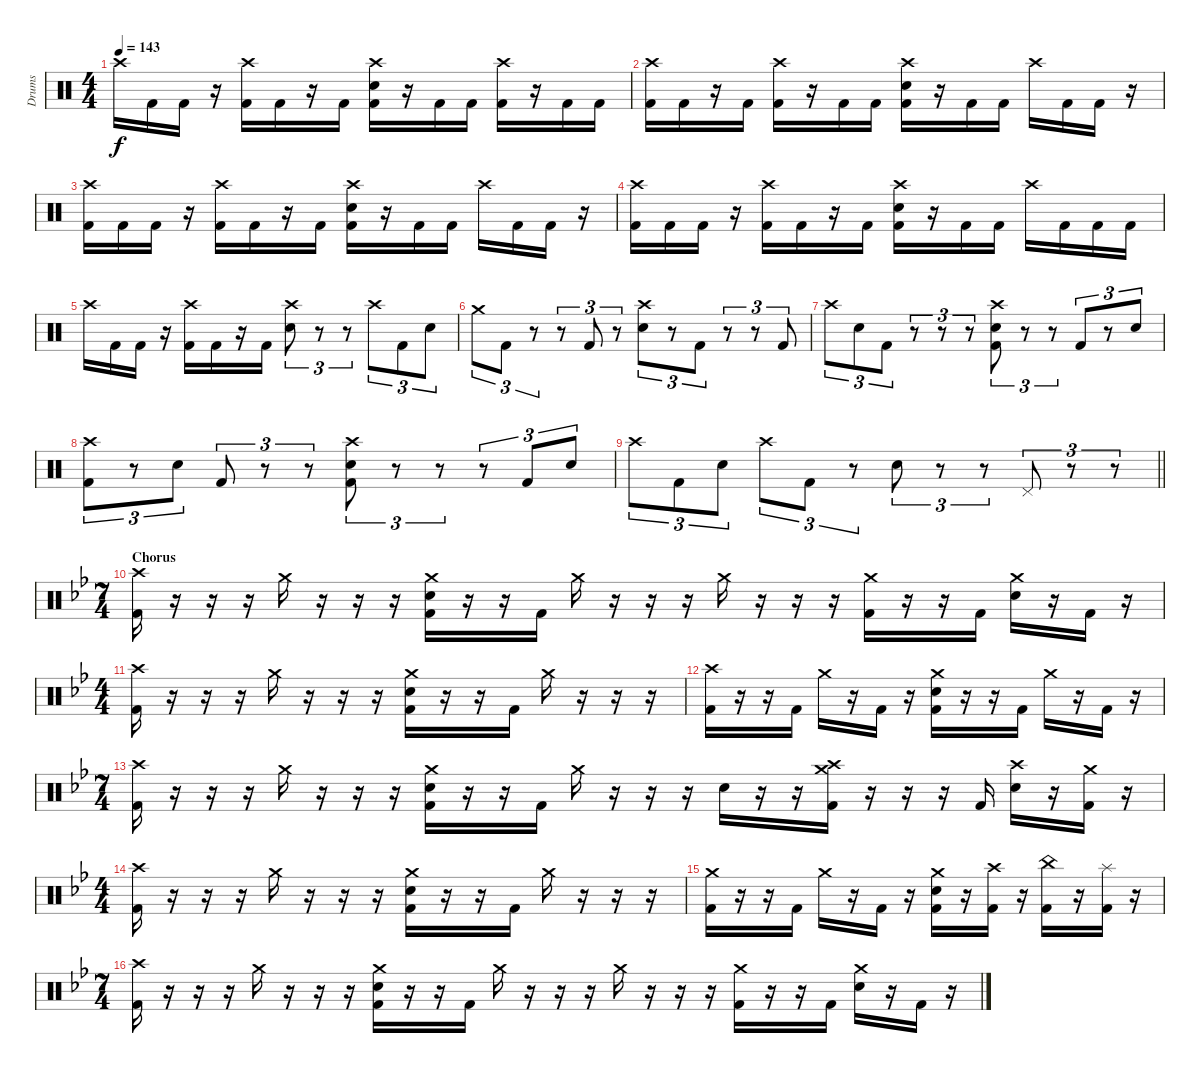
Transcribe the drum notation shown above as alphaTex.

\track ("Drums" "Drums") {instrument percussion}
\staff {score}
\articulation defaults
\ts (4 4)
\tempo 143
\clef neutral
\ks c "Crash high (hit)".16{dy f} "Kick (hit) 2".16 "Kick (hit) 2".16
r.16 ("Crash high (hit)" "Kick (hit) 2").16 "Kick (hit) 2".16 r.16 "Kick (hit) 2".16 ("Crash high (hit)" "Electric Snare (hit)" "Kick (hit) 2").16 r.16 "Kick (hit) 2".16 "Kick (hit) 2".16 ("Crash high (hit)" "Kick (hit) 2").16 r.16 "Kick (hit) 2".16 "Kick (hit) 2".16 |
("Crash high (hit)" "Kick (hit) 2").16 "Kick (hit) 2".16 r.16 "Kick (hit) 2".16 ("Crash high (hit)" "Kick (hit) 2").16 r.16 "Kick (hit) 2".16 "Kick (hit) 2".16 ("Crash high (hit)" "Electric Snare (hit)" "Kick (hit) 2").16 r.16 "Kick (hit) 2".16 "Kick (hit) 2".16 "Crash high (hit)".16 "Kick (hit) 2".16 "Kick (hit) 2".16 r.16 |
("Crash high (hit)" "Kick (hit) 2").16 "Kick (hit) 2".16 "Kick (hit) 2".16 r.16 ("Crash high (hit)" "Kick (hit) 2").16 "Kick (hit) 2".16 r.16 "Kick (hit) 2".16 ("Crash high (hit)" "Electric Snare (hit)" "Kick (hit) 2").16 r.16 "Kick (hit) 2".16 "Kick (hit) 2".16 "Crash high (hit)".16 "Kick (hit) 2".16 "Kick (hit) 2".16 r.16 |
("Crash high (hit)" "Kick (hit) 2").16 "Kick (hit) 2".16 "Kick (hit) 2".16 r.16 ("Crash high (hit)" "Kick (hit) 2").16 "Kick (hit) 2".16 r.16 "Kick (hit) 2".16 ("Crash high (hit)" "Electric Snare (hit)" "Kick (hit) 2").16 r.16 "Kick (hit) 2".16 "Kick (hit) 2".16 "Crash high (hit)".16 "Kick (hit) 2".16 "Kick (hit) 2".16 "Kick (hit) 2".16 |
"Crash high (hit)".16 "Kick (hit) 2".16 "Kick (hit) 2".16 r.16 ("Crash high (hit)" "Kick (hit) 2").16 "Kick (hit) 2".16 r.16 "Kick (hit) 2".16 ("Crash high (hit)" "Electric Snare (hit)").8{tu (3 2)} r.8{tu (3 2)} r.8{tu (3 2)} "Crash high (hit)".8{tu (3 2)} "Kick (hit) 2".8{tu (3 2)} "Electric Snare (hit)".8{tu (3 2)} |
"Crash medium (hit)".8{tu (3 2)} "Kick (hit) 2".8{tu (3 2)} r.8{tu (3 2)} r.8{tu (3 2)} "Kick (hit) 2".8{tu (3 2)} r.8{tu (3 2)} ("Crash high (hit)" "Electric Snare (hit)").8{tu (3 2)} r.8{tu (3 2)} "Kick (hit) 2".8{tu (3 2)} r.8{tu (3 2)} r.8{tu (3 2)} "Kick (hit) 2".8{tu (3 2)} |
"Crash high (hit)".8{tu (3 2)} "Electric Snare (hit)".8{tu (3 2)} "Kick (hit) 2".8{tu (3 2)} r.8{tu (3 2)} r.8{tu (3 2)} r.8{tu (3 2)} ("Crash high (hit)" "Electric Snare (hit)" "Kick (hit) 2").8{tu (3 2)} r.8{tu (3 2)} r.8{tu (3 2)} "Kick (hit) 2".8{tu (3 2)} r.8{tu (3 2)} "Electric Snare (hit)".8{tu (3 2)} |
("Crash high (hit)" "Kick (hit) 2").8{tu (3 2)} r.8{tu (3 2)} "Electric Snare (hit)".8{tu (3 2)} "Kick (hit) 2".8{tu (3 2)} r.8{tu (3 2)} r.8{tu (3 2)} ("Crash high (hit)" "Electric Snare (hit)" "Kick (hit) 2").8{tu (3 2)} r.8{tu (3 2)} r.8{tu (3 2)} r.8{tu (3 2)} "Kick (hit) 2".8{tu (3 2)} "Electric Snare (hit)".8{tu (3 2)} |
\barLineRight lightlight "Crash high (hit)".8{tu (3 2)} "Kick (hit) 2".8{tu (3 2)} "Electric Snare (hit)".8{tu (3 2)} "Crash high (hit)".8{tu (3 2)} "Kick (hit) 2".8{tu (3 2)}
r.8{tu (3 2)} "Electric Snare (hit)".8{tu (3 2)} r.8{tu (3 2)} r.8{tu (3 2)} "Pedal Hi-Hat (hit)".8{tu (3 2)} r.8{tu (3 2)} r.8{tu (3 2)} |
\ts (7 4)
\section ("" "Chorus")
\ks bb
("Crash high (hit)" "Kick (hit) 2").16 r.16 r.16 r.16 "Crash medium (hit)".16 r.16 r.16 r.16 ("Crash medium (hit)" "Electric Snare (hit)" "Kick (hit) 2").16 r.16 r.16 "Kick (hit) 2".16 "Crash medium (hit)".16 r.16 r.16 r.16 "Crash medium (hit)".16 r.16 r.16 r.16 ("Crash medium (hit)" "Kick (hit) 2").16 r.16 r.16 "Kick (hit) 2".16 ("Crash medium (hit)" "Electric Snare (hit)").16 r.16 "Kick (hit) 2".16 r.16 |
\ts (4 4)
("Crash high (hit)" "Kick (hit) 2").16 r.16 r.16 r.16 "Crash medium (hit)".16 r.16 r.16 r.16 ("Crash medium (hit)" "Electric Snare (hit)" "Kick (hit) 2").16 r.16 r.16 "Kick (hit) 2".16 "Crash medium (hit)".16 r.16 r.16 r.16 |
("Crash high (hit)" "Kick (hit) 2").16 r.16 r.16 "Kick (hit) 2".16 "Crash medium (hit)".16 r.16 "Kick (hit) 2".16 r.16 ("Crash medium (hit)" "Electric Snare (hit)" "Kick (hit) 2").16 r.16 r.16 "Kick (hit) 2".16 "Crash medium (hit)".16 r.16 "Kick (hit) 2".16 r.16 |
\ts (7 4)
("Crash high (hit)" "Kick (hit) 2").16 r.16 r.16 r.16 "Crash medium (hit)".16 r.16 r.16 r.16 ("Crash medium (hit)" "Electric Snare (hit)" "Kick (hit) 2").16 r.16 r.16 "Kick (hit) 2".16 "Crash medium (hit)".16 r.16 r.16 r.16 "Electric Snare (hit)".16 r.16 r.16 ("Crash medium (hit)" "Crash high (hit)" "Kick (hit) 2").16 r.16 r.16 r.16 "Kick (hit) 2".16 ("Crash high (hit)" "Electric Snare (hit)").16 r.16 ("Crash medium (hit)" "Kick (hit) 2").16 r.16 |
\ts (4 4)
("Crash high (hit)" "Kick (hit) 2").16 r.16 r.16 r.16 "Crash medium (hit)".16 r.16 r.16 r.16 ("Crash medium (hit)" "Electric Snare (hit)" "Kick (hit) 2").16 r.16 r.16 "Kick (hit) 2".16 "Crash medium (hit)".16 r.16 r.16 r.16 |
("Crash medium (hit)" "Kick (hit) 2").16 r.16 r.16 "Kick (hit) 2".16 "Crash medium (hit)".16 r.16 "Kick (hit) 2".16 r.16 ("Crash medium (hit)" "Electric Snare (hit)" "Kick (hit) 2").16 r.16 ("Crash high (hit)" "Kick (hit) 2").16 r.16 ("China (hit)" "Kick (hit) 2").16 r.16 ("Splash (hit)" "Kick (hit) 2").16 r.16 |
\ts (7 4)
("Crash high (hit)" "Kick (hit) 2").16 r.16 r.16 r.16 "Crash medium (hit)".16 r.16 r.16 r.16 ("Crash medium (hit)" "Electric Snare (hit)" "Kick (hit) 2").16 r.16 r.16 "Kick (hit) 2".16 "Crash medium (hit)".16 r.16 r.16 r.16 "Crash medium (hit)".16 r.16 r.16 r.16 ("Crash medium (hit)" "Kick (hit) 2").16 r.16 r.16 "Kick (hit) 2".16 ("Crash medium (hit)" "Electric Snare (hit)").16 r.16 "Kick (hit) 2".16 r.16
